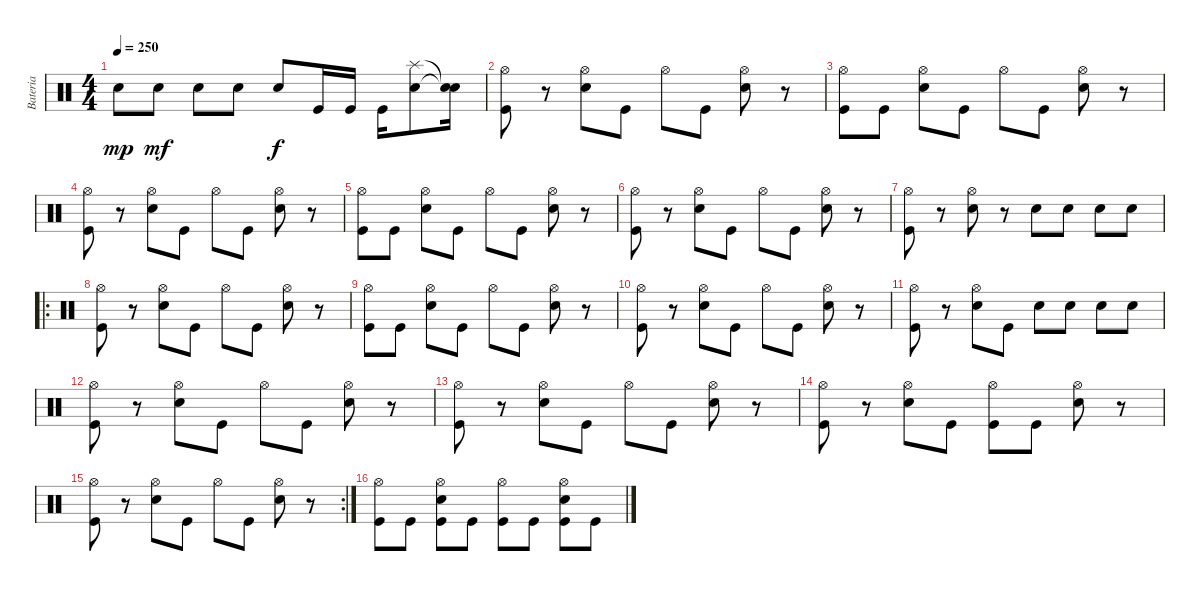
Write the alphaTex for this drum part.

\track ("Bateria" "Bateria") {instrument percussion}
\staff {score}
\articulation defaults
\ts (4 4)
\tempo 250
\clef neutral
\ks c "Electric Snare (hit)".8{dy mp} "Electric Snare (hit)".8{dy mf} "Electric Snare (hit)".8 "Electric Snare (hit)".8 "Electric Snare (hit)".8{dy f} "Kick (hit)".16 "Kick (hit)".16 "Kick (hit)".16
("Electric Snare (hit)" "Splash (hit)").8 ("Snare (hit)"{t} "Snare (hit)"{t}).16 |
("Kick (hit)" "Hi-Hat (open)").8 r.8 ("Electric Snare (hit)" "Hi-Hat (open)").8 "Kick (hit)".8 "Hi-Hat (open)".8 "Kick (hit)".8 ("Electric Snare (hit)" "Hi-Hat (open)").8 r.8 |
("Kick (hit)" "Hi-Hat (open)").8 "Kick (hit)".8 ("Electric Snare (hit)" "Hi-Hat (open)").8 "Kick (hit)".8 "Hi-Hat (open)".8 "Kick (hit)".8 ("Electric Snare (hit)" "Hi-Hat (open)").8 r.8 |
("Kick (hit)" "Hi-Hat (open)").8 r.8 ("Electric Snare (hit)" "Hi-Hat (open)").8 "Kick (hit)".8 "Hi-Hat (open)".8 "Kick (hit)".8 ("Electric Snare (hit)" "Hi-Hat (open)").8 r.8 |
("Kick (hit)" "Hi-Hat (open)").8 "Kick (hit)".8 ("Electric Snare (hit)" "Hi-Hat (open)").8 "Kick (hit)".8 "Hi-Hat (open)".8 "Kick (hit)".8 ("Electric Snare (hit)" "Hi-Hat (open)").8 r.8 |
("Kick (hit)" "Hi-Hat (open)").8 r.8 ("Electric Snare (hit)" "Hi-Hat (open)").8 "Kick (hit)".8 "Hi-Hat (open)".8 "Kick (hit)".8 ("Electric Snare (hit)" "Hi-Hat (open)").8 r.8 |
("Kick (hit)" "Hi-Hat (open)").8 r.8 ("Electric Snare (hit)" "Hi-Hat (open)").8 r.8 "Electric Snare (hit)".8 "Electric Snare (hit)".8 "Electric Snare (hit)".8 "Electric Snare (hit)".8 |
\ro
("Kick (hit)" "Hi-Hat (open)").8 r.8 ("Electric Snare (hit)" "Hi-Hat (open)").8 "Kick (hit)".8 "Hi-Hat (open)".8 "Kick (hit)".8 ("Electric Snare (hit)" "Hi-Hat (open)").8 r.8 |
("Kick (hit)" "Hi-Hat (open)").8 "Kick (hit)".8 ("Electric Snare (hit)" "Hi-Hat (open)").8 "Kick (hit)".8 "Hi-Hat (open)".8 "Kick (hit)".8 ("Electric Snare (hit)" "Hi-Hat (open)").8 r.8 |
("Kick (hit)" "Hi-Hat (open)").8 r.8 ("Electric Snare (hit)" "Hi-Hat (open)").8 "Kick (hit)".8 "Hi-Hat (open)".8 "Kick (hit)".8 ("Electric Snare (hit)" "Hi-Hat (open)").8 r.8 |
("Kick (hit)" "Hi-Hat (open)").8 r.8 ("Electric Snare (hit)" "Hi-Hat (open)").8 "Kick (hit)".8 "Electric Snare (hit)".8 "Electric Snare (hit)".8 "Electric Snare (hit)".8 "Electric Snare (hit)".8 |
("Kick (hit)" "Hi-Hat (open)").8 r.8 ("Electric Snare (hit)" "Hi-Hat (open)").8 "Kick (hit)".8 "Hi-Hat (open)".8 "Kick (hit)".8 ("Electric Snare (hit)" "Hi-Hat (open)").8 r.8 |
("Kick (hit)" "Hi-Hat (open)").8 r.8 ("Electric Snare (hit)" "Hi-Hat (open)").8 "Kick (hit)".8 "Hi-Hat (open)".8 "Kick (hit)".8 ("Electric Snare (hit)" "Hi-Hat (open)").8 r.8 |
("Kick (hit)" "Hi-Hat (open)").8 r.8 ("Electric Snare (hit)" "Hi-Hat (open)").8 "Kick (hit)".8 ("Kick (hit)" "Hi-Hat (open)").8 "Kick (hit)".8 ("Electric Snare (hit)" "Hi-Hat (open)").8 r.8 |
\rc 2
("Kick (hit)" "Hi-Hat (open)").8 r.8 ("Electric Snare (hit)" "Hi-Hat (open)").8 "Kick (hit)".8 "Hi-Hat (open)".8 "Kick (hit)".8 ("Electric Snare (hit)" "Hi-Hat (open)").8 r.8 |
("Kick (hit)" "Hi-Hat (open)").8 "Kick (hit)".8 ("Kick (hit)" "Electric Snare (hit)" "Hi-Hat (open)").8 "Kick (hit)".8 ("Kick (hit)" "Hi-Hat (open)").8 "Kick (hit)".8 ("Kick (hit)" "Electric Snare (hit)" "Hi-Hat (open)").8 "Kick (hit)".8
